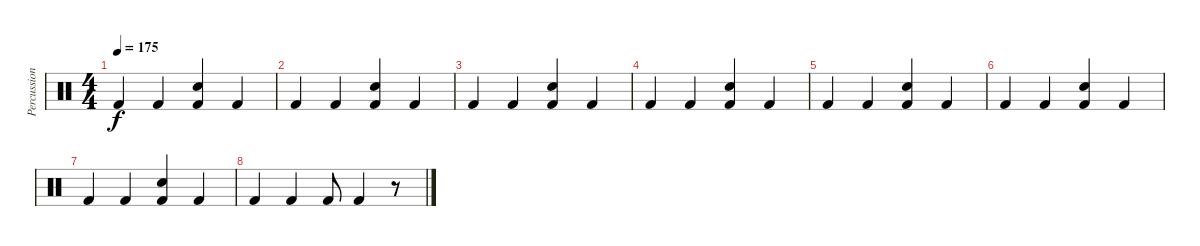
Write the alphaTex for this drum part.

\track ("Percussion" "Percussion") {instrument percussion}
\staff {score}
\articulation defaults
\ts (4 4)
\tempo 175
\clef neutral
\ks c "Kick (hit) 2".4{dy f} "Kick (hit) 2".4
("Electric Snare (hit)" "Kick (hit) 2").4 "Kick (hit) 2".4 |
"Kick (hit) 2".4 "Kick (hit) 2".4 ("Electric Snare (hit)" "Kick (hit) 2").4 "Kick (hit) 2".4 |
"Kick (hit) 2".4 "Kick (hit) 2".4 ("Electric Snare (hit)" "Kick (hit) 2").4 "Kick (hit) 2".4 |
"Kick (hit) 2".4 "Kick (hit) 2".4 ("Electric Snare (hit)" "Kick (hit) 2").4 "Kick (hit) 2".4 |
"Kick (hit) 2".4 "Kick (hit) 2".4 ("Electric Snare (hit)" "Kick (hit) 2").4 "Kick (hit) 2".4 |
"Kick (hit) 2".4 "Kick (hit) 2".4 ("Electric Snare (hit)" "Kick (hit) 2").4 "Kick (hit) 2".4 |
"Kick (hit) 2".4 "Kick (hit) 2".4 ("Electric Snare (hit)" "Kick (hit) 2").4 "Kick (hit) 2".4 |
"Kick (hit) 2".4 "Kick (hit) 2".4 "Kick (hit) 2".8 "Kick (hit) 2".4 r.8
